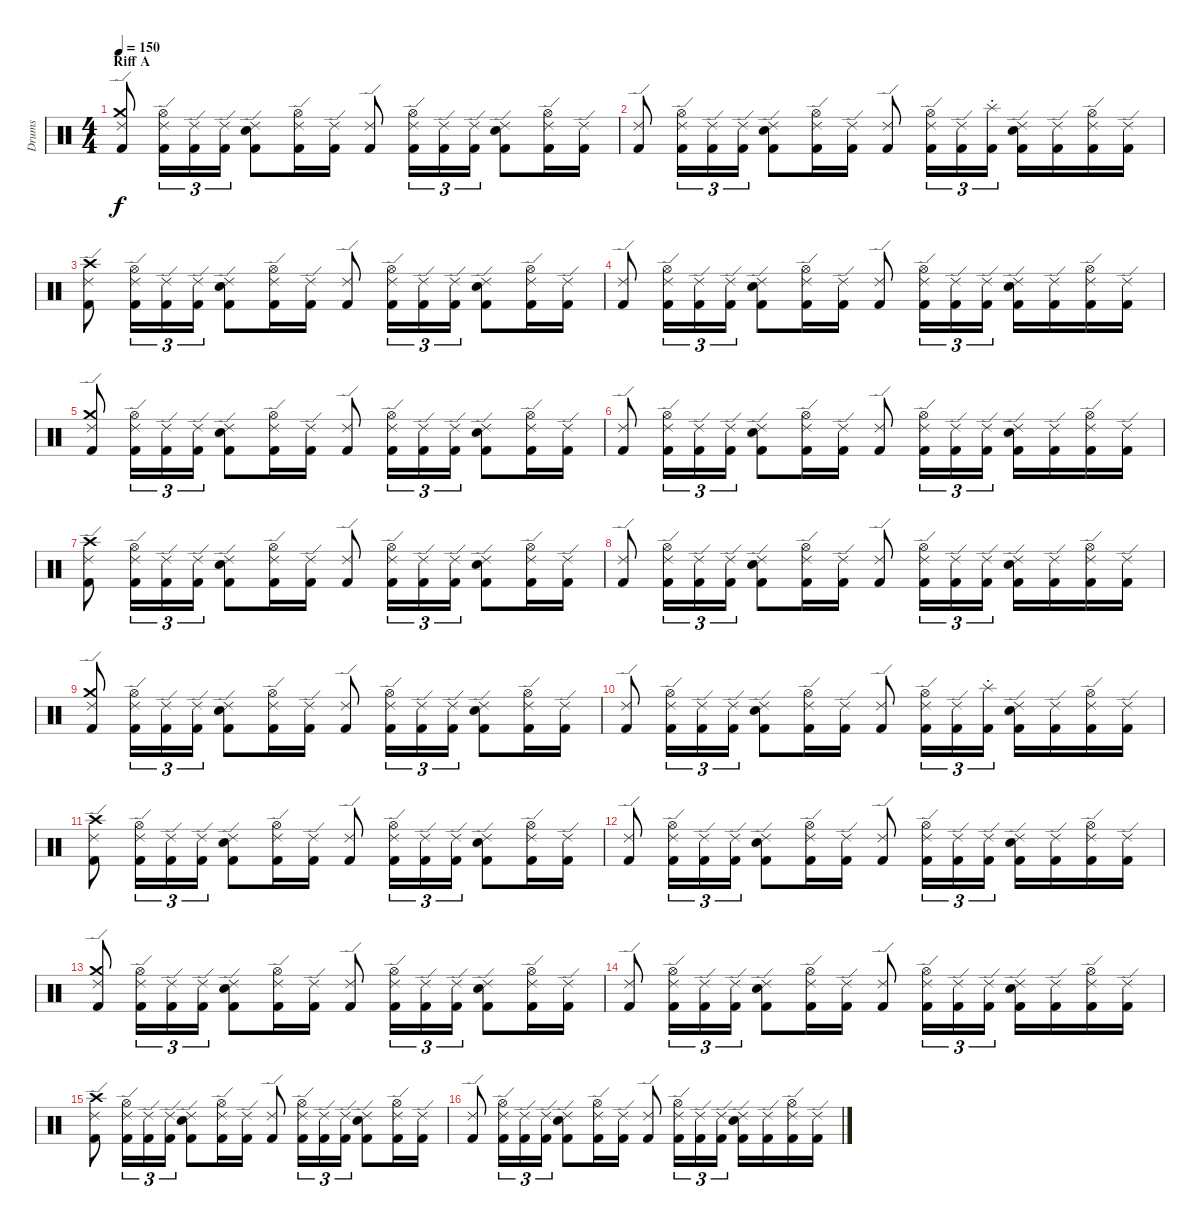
\track ("Drums" "Drums") {instrument percussion}
\staff {score}
\articulation defaults
\ts (4 4)
\section ("" "Riff A")
\tempo 150
\clef neutral
\ks c
("Kick (hit) 2" "Crash medium (hit)" "Ride (edge) 2").8{dy f} ("Kick (hit) 2" "Hi-Hat (open)" "Ride (edge) 2").16{tu (3 2)} ("Kick (hit) 2" "Ride (edge) 2").16{tu (3 2)} ("Kick (hit) 2" "Ride (edge) 2").16{tu (3 2)} ("Kick (hit) 2" "Snare (hit) 2" "Ride (edge) 2").8 ("Kick (hit) 2" "Hi-Hat (open)" "Ride (edge) 2").16 ("Kick (hit) 2" "Ride (edge) 2").16 ("Kick (hit) 2" "Ride (edge) 2").8 ("Kick (hit) 2" "Hi-Hat (open)" "Ride (edge) 2").16{tu (3 2)} ("Kick (hit) 2" "Ride (edge) 2").16{tu (3 2)} ("Kick (hit) 2" "Ride (edge) 2").16{tu (3 2)} ("Kick (hit) 2" "Snare (hit) 2" "Ride (edge) 2").8 ("Kick (hit) 2" "Hi-Hat (open)" "Ride (edge) 2").16 ("Kick (hit) 2" "Ride (edge) 2").16 |
("Kick (hit) 2" "Ride (edge) 2").8 ("Kick (hit) 2" "Hi-Hat (open)" "Ride (edge) 2").16{tu (3 2)} ("Kick (hit) 2" "Ride (edge) 2").16{tu (3 2)} ("Kick (hit) 2" "Ride (edge) 2").16{tu (3 2)} ("Kick (hit) 2" "Snare (hit) 2" "Ride (edge) 2").8 ("Kick (hit) 2" "Hi-Hat (open)" "Ride (edge) 2").16 ("Kick (hit) 2" "Ride (edge) 2").16 ("Kick (hit) 2" "Ride (edge) 2").8 ("Kick (hit) 2" "Hi-Hat (open)" "Ride (edge) 2").16{tu (3 2)} ("Kick (hit) 2" "Ride (edge) 2").16{tu (3 2)} ("Kick (hit) 2" "Splash (choke)").16{tu (3 2)} ("Kick (hit) 2" "Snare (hit) 2" "Ride (edge) 2").16 ("Kick (hit) 2" "Ride (edge) 2").16 ("Kick (hit) 2" "Hi-Hat (open)" "Ride (edge) 2").16 ("Kick (hit) 2" "Ride (edge) 2").16 |
("Kick (hit) 2" "Crash high (hit)" "Ride (edge) 2").8 ("Kick (hit) 2" "Hi-Hat (open)" "Ride (edge) 2").16{tu (3 2)} ("Kick (hit) 2" "Ride (edge) 2").16{tu (3 2)} ("Kick (hit) 2" "Ride (edge) 2").16{tu (3 2)} ("Kick (hit) 2" "Snare (hit) 2" "Ride (edge) 2").8 ("Kick (hit) 2" "Hi-Hat (open)" "Ride (edge) 2").16 ("Kick (hit) 2" "Ride (edge) 2").16 ("Kick (hit) 2" "Ride (edge) 2").8 ("Kick (hit) 2" "Hi-Hat (open)" "Ride (edge) 2").16{tu (3 2)} ("Kick (hit) 2" "Ride (edge) 2").16{tu (3 2)} ("Kick (hit) 2" "Ride (edge) 2").16{tu (3 2)} ("Kick (hit) 2" "Snare (hit) 2" "Ride (edge) 2").8 ("Kick (hit) 2" "Hi-Hat (open)" "Ride (edge) 2").16 ("Kick (hit) 2" "Ride (edge) 2").16 |
("Kick (hit) 2" "Ride (edge) 2").8 ("Kick (hit) 2" "Hi-Hat (open)" "Ride (edge) 2").16{tu (3 2)} ("Kick (hit) 2" "Ride (edge) 2").16{tu (3 2)} ("Kick (hit) 2" "Ride (edge) 2").16{tu (3 2)} ("Kick (hit) 2" "Snare (hit) 2" "Ride (edge) 2").8 ("Kick (hit) 2" "Hi-Hat (open)" "Ride (edge) 2").16 ("Kick (hit) 2" "Ride (edge) 2").16 ("Kick (hit) 2" "Ride (edge) 2").8 ("Kick (hit) 2" "Hi-Hat (open)" "Ride (edge) 2").16{tu (3 2)} ("Kick (hit) 2" "Ride (edge) 2").16{tu (3 2)} ("Kick (hit) 2" "Ride (edge) 2").16{tu (3 2)} ("Kick (hit) 2" "Snare (hit) 2" "Ride (edge) 2").16 ("Kick (hit) 2" "Ride (edge) 2").16 ("Kick (hit) 2" "Hi-Hat (open)" "Ride (edge) 2").16 ("Kick (hit) 2" "Ride (edge) 2").16 |
("Kick (hit) 2" "Crash medium (hit)" "Ride (edge) 2").8 ("Kick (hit) 2" "Hi-Hat (open)" "Ride (edge) 2").16{tu (3 2)} ("Kick (hit) 2" "Ride (edge) 2").16{tu (3 2)} ("Kick (hit) 2" "Ride (edge) 2").16{tu (3 2)} ("Kick (hit) 2" "Snare (hit) 2" "Ride (edge) 2").8 ("Kick (hit) 2" "Hi-Hat (open)" "Ride (edge) 2").16 ("Kick (hit) 2" "Ride (edge) 2").16 ("Kick (hit) 2" "Ride (edge) 2").8 ("Kick (hit) 2" "Hi-Hat (open)" "Ride (edge) 2").16{tu (3 2)} ("Kick (hit) 2" "Ride (edge) 2").16{tu (3 2)} ("Kick (hit) 2" "Ride (edge) 2").16{tu (3 2)} ("Kick (hit) 2" "Snare (hit) 2" "Ride (edge) 2").8 ("Kick (hit) 2" "Hi-Hat (open)" "Ride (edge) 2").16 ("Kick (hit) 2" "Ride (edge) 2").16 |
("Kick (hit) 2" "Ride (edge) 2").8 ("Kick (hit) 2" "Hi-Hat (open)" "Ride (edge) 2").16{tu (3 2)} ("Kick (hit) 2" "Ride (edge) 2").16{tu (3 2)} ("Kick (hit) 2" "Ride (edge) 2").16{tu (3 2)} ("Kick (hit) 2" "Snare (hit) 2" "Ride (edge) 2").8 ("Kick (hit) 2" "Hi-Hat (open)" "Ride (edge) 2").16 ("Kick (hit) 2" "Ride (edge) 2").16 ("Kick (hit) 2" "Ride (edge) 2").8 ("Kick (hit) 2" "Hi-Hat (open)" "Ride (edge) 2").16{tu (3 2)} ("Kick (hit) 2" "Ride (edge) 2").16{tu (3 2)} ("Kick (hit) 2" "Ride (edge) 2").16{tu (3 2)} ("Kick (hit) 2" "Snare (hit) 2" "Ride (edge) 2").16 ("Kick (hit) 2" "Ride (edge) 2").16 ("Kick (hit) 2" "Hi-Hat (open)" "Ride (edge) 2").16 ("Kick (hit) 2" "Ride (edge) 2").16 |
("Kick (hit) 2" "Crash high (hit)" "Ride (edge) 2").8 ("Kick (hit) 2" "Hi-Hat (open)" "Ride (edge) 2").16{tu (3 2)} ("Kick (hit) 2" "Ride (edge) 2").16{tu (3 2)} ("Kick (hit) 2" "Ride (edge) 2").16{tu (3 2)} ("Kick (hit) 2" "Snare (hit) 2" "Ride (edge) 2").8 ("Kick (hit) 2" "Hi-Hat (open)" "Ride (edge) 2").16 ("Kick (hit) 2" "Ride (edge) 2").16 ("Kick (hit) 2" "Ride (edge) 2").8 ("Kick (hit) 2" "Hi-Hat (open)" "Ride (edge) 2").16{tu (3 2)} ("Kick (hit) 2" "Ride (edge) 2").16{tu (3 2)} ("Kick (hit) 2" "Ride (edge) 2").16{tu (3 2)} ("Kick (hit) 2" "Snare (hit) 2" "Ride (edge) 2").8 ("Kick (hit) 2" "Hi-Hat (open)" "Ride (edge) 2").16 ("Kick (hit) 2" "Ride (edge) 2").16 |
("Kick (hit) 2" "Ride (edge) 2").8 ("Kick (hit) 2" "Hi-Hat (open)" "Ride (edge) 2").16{tu (3 2)} ("Kick (hit) 2" "Ride (edge) 2").16{tu (3 2)} ("Kick (hit) 2" "Ride (edge) 2").16{tu (3 2)} ("Kick (hit) 2" "Snare (hit) 2" "Ride (edge) 2").8 ("Kick (hit) 2" "Hi-Hat (open)" "Ride (edge) 2").16 ("Kick (hit) 2" "Ride (edge) 2").16 ("Kick (hit) 2" "Ride (edge) 2").8 ("Kick (hit) 2" "Hi-Hat (open)" "Ride (edge) 2").16{tu (3 2)} ("Kick (hit) 2" "Ride (edge) 2").16{tu (3 2)} ("Kick (hit) 2" "Ride (edge) 2").16{tu (3 2)} ("Kick (hit) 2" "Snare (hit) 2" "Ride (edge) 2").16 ("Kick (hit) 2" "Ride (edge) 2").16 ("Kick (hit) 2" "Hi-Hat (open)" "Ride (edge) 2").16 ("Kick (hit) 2" "Ride (edge) 2").16 |
("Kick (hit) 2" "Crash medium (hit)" "Ride (edge) 2").8 ("Kick (hit) 2" "Hi-Hat (open)" "Ride (edge) 2").16{tu (3 2)} ("Kick (hit) 2" "Ride (edge) 2").16{tu (3 2)} ("Kick (hit) 2" "Ride (edge) 2").16{tu (3 2)} ("Kick (hit) 2" "Snare (hit) 2" "Ride (edge) 2").8 ("Kick (hit) 2" "Hi-Hat (open)" "Ride (edge) 2").16 ("Kick (hit) 2" "Ride (edge) 2").16 ("Kick (hit) 2" "Ride (edge) 2").8 ("Kick (hit) 2" "Hi-Hat (open)" "Ride (edge) 2").16{tu (3 2)} ("Kick (hit) 2" "Ride (edge) 2").16{tu (3 2)} ("Kick (hit) 2" "Ride (edge) 2").16{tu (3 2)} ("Kick (hit) 2" "Snare (hit) 2" "Ride (edge) 2").8 ("Kick (hit) 2" "Hi-Hat (open)" "Ride (edge) 2").16 ("Kick (hit) 2" "Ride (edge) 2").16 |
("Kick (hit) 2" "Ride (edge) 2").8 ("Kick (hit) 2" "Hi-Hat (open)" "Ride (edge) 2").16{tu (3 2)} ("Kick (hit) 2" "Ride (edge) 2").16{tu (3 2)} ("Kick (hit) 2" "Ride (edge) 2").16{tu (3 2)} ("Kick (hit) 2" "Snare (hit) 2" "Ride (edge) 2").8 ("Kick (hit) 2" "Hi-Hat (open)" "Ride (edge) 2").16 ("Kick (hit) 2" "Ride (edge) 2").16 ("Kick (hit) 2" "Ride (edge) 2").8 ("Kick (hit) 2" "Hi-Hat (open)" "Ride (edge) 2").16{tu (3 2)} ("Kick (hit) 2" "Ride (edge) 2").16{tu (3 2)} ("Kick (hit) 2" "Splash (choke)").16{tu (3 2)} ("Kick (hit) 2" "Snare (hit) 2" "Ride (edge) 2").16 ("Kick (hit) 2" "Ride (edge) 2").16 ("Kick (hit) 2" "Hi-Hat (open)" "Ride (edge) 2").16 ("Kick (hit) 2" "Ride (edge) 2").16 |
("Kick (hit) 2" "Crash high (hit)" "Ride (edge) 2").8 ("Kick (hit) 2" "Hi-Hat (open)" "Ride (edge) 2").16{tu (3 2)} ("Kick (hit) 2" "Ride (edge) 2").16{tu (3 2)} ("Kick (hit) 2" "Ride (edge) 2").16{tu (3 2)} ("Kick (hit) 2" "Snare (hit) 2" "Ride (edge) 2").8 ("Kick (hit) 2" "Hi-Hat (open)" "Ride (edge) 2").16 ("Kick (hit) 2" "Ride (edge) 2").16 ("Kick (hit) 2" "Ride (edge) 2").8 ("Kick (hit) 2" "Hi-Hat (open)" "Ride (edge) 2").16{tu (3 2)} ("Kick (hit) 2" "Ride (edge) 2").16{tu (3 2)} ("Kick (hit) 2" "Ride (edge) 2").16{tu (3 2)} ("Kick (hit) 2" "Snare (hit) 2" "Ride (edge) 2").8 ("Kick (hit) 2" "Hi-Hat (open)" "Ride (edge) 2").16 ("Kick (hit) 2" "Ride (edge) 2").16 |
("Kick (hit) 2" "Ride (edge) 2").8 ("Kick (hit) 2" "Hi-Hat (open)" "Ride (edge) 2").16{tu (3 2)} ("Kick (hit) 2" "Ride (edge) 2").16{tu (3 2)} ("Kick (hit) 2" "Ride (edge) 2").16{tu (3 2)} ("Kick (hit) 2" "Snare (hit) 2" "Ride (edge) 2").8 ("Kick (hit) 2" "Hi-Hat (open)" "Ride (edge) 2").16 ("Kick (hit) 2" "Ride (edge) 2").16 ("Kick (hit) 2" "Ride (edge) 2").8 ("Kick (hit) 2" "Hi-Hat (open)" "Ride (edge) 2").16{tu (3 2)} ("Kick (hit) 2" "Ride (edge) 2").16{tu (3 2)} ("Kick (hit) 2" "Ride (edge) 2").16{tu (3 2)} ("Kick (hit) 2" "Snare (hit) 2" "Ride (edge) 2").16 ("Kick (hit) 2" "Ride (edge) 2").16 ("Kick (hit) 2" "Hi-Hat (open)" "Ride (edge) 2").16 ("Kick (hit) 2" "Ride (edge) 2").16 |
("Kick (hit) 2" "Crash medium (hit)" "Ride (edge) 2").8 ("Kick (hit) 2" "Hi-Hat (open)" "Ride (edge) 2").16{tu (3 2)} ("Kick (hit) 2" "Ride (edge) 2").16{tu (3 2)} ("Kick (hit) 2" "Ride (edge) 2").16{tu (3 2)} ("Kick (hit) 2" "Snare (hit) 2" "Ride (edge) 2").8 ("Kick (hit) 2" "Hi-Hat (open)" "Ride (edge) 2").16 ("Kick (hit) 2" "Ride (edge) 2").16 ("Kick (hit) 2" "Ride (edge) 2").8 ("Kick (hit) 2" "Hi-Hat (open)" "Ride (edge) 2").16{tu (3 2)} ("Kick (hit) 2" "Ride (edge) 2").16{tu (3 2)} ("Kick (hit) 2" "Ride (edge) 2").16{tu (3 2)} ("Kick (hit) 2" "Snare (hit) 2" "Ride (edge) 2").8 ("Kick (hit) 2" "Hi-Hat (open)" "Ride (edge) 2").16 ("Kick (hit) 2" "Ride (edge) 2").16 |
("Kick (hit) 2" "Ride (edge) 2").8 ("Kick (hit) 2" "Hi-Hat (open)" "Ride (edge) 2").16{tu (3 2)} ("Kick (hit) 2" "Ride (edge) 2").16{tu (3 2)} ("Kick (hit) 2" "Ride (edge) 2").16{tu (3 2)} ("Kick (hit) 2" "Snare (hit) 2" "Ride (edge) 2").8 ("Kick (hit) 2" "Hi-Hat (open)" "Ride (edge) 2").16 ("Kick (hit) 2" "Ride (edge) 2").16 ("Kick (hit) 2" "Ride (edge) 2").8 ("Kick (hit) 2" "Hi-Hat (open)" "Ride (edge) 2").16{tu (3 2)} ("Kick (hit) 2" "Ride (edge) 2").16{tu (3 2)} ("Kick (hit) 2" "Ride (edge) 2").16{tu (3 2)} ("Kick (hit) 2" "Snare (hit) 2" "Ride (edge) 2").16 ("Kick (hit) 2" "Ride (edge) 2").16 ("Kick (hit) 2" "Hi-Hat (open)" "Ride (edge) 2").16 ("Kick (hit) 2" "Ride (edge) 2").16 |
("Kick (hit) 2" "Crash high (hit)" "Ride (edge) 2").8 ("Kick (hit) 2" "Hi-Hat (open)" "Ride (edge) 2").16{tu (3 2)} ("Kick (hit) 2" "Ride (edge) 2").16{tu (3 2)} ("Kick (hit) 2" "Ride (edge) 2").16{tu (3 2)} ("Kick (hit) 2" "Snare (hit) 2" "Ride (edge) 2").8 ("Kick (hit) 2" "Hi-Hat (open)" "Ride (edge) 2").16 ("Kick (hit) 2" "Ride (edge) 2").16 ("Kick (hit) 2" "Ride (edge) 2").8 ("Kick (hit) 2" "Hi-Hat (open)" "Ride (edge) 2").16{tu (3 2)} ("Kick (hit) 2" "Ride (edge) 2").16{tu (3 2)} ("Kick (hit) 2" "Ride (edge) 2").16{tu (3 2)} ("Kick (hit) 2" "Snare (hit) 2" "Ride (edge) 2").8 ("Kick (hit) 2" "Hi-Hat (open)" "Ride (edge) 2").16 ("Kick (hit) 2" "Ride (edge) 2").16 |
("Kick (hit) 2" "Ride (edge) 2").8 ("Kick (hit) 2" "Hi-Hat (open)" "Ride (edge) 2").16{tu (3 2)} ("Kick (hit) 2" "Ride (edge) 2").16{tu (3 2)} ("Kick (hit) 2" "Ride (edge) 2").16{tu (3 2)} ("Kick (hit) 2" "Snare (hit) 2" "Ride (edge) 2").8 ("Kick (hit) 2" "Hi-Hat (open)" "Ride (edge) 2").16 ("Kick (hit) 2" "Ride (edge) 2").16 ("Kick (hit) 2" "Ride (edge) 2").8 ("Kick (hit) 2" "Hi-Hat (open)" "Ride (edge) 2").16{tu (3 2)} ("Kick (hit) 2" "Ride (edge) 2").16{tu (3 2)} ("Kick (hit) 2" "Ride (edge) 2").16{tu (3 2)} ("Kick (hit) 2" "Snare (hit) 2" "Ride (edge) 2").16 ("Kick (hit) 2" "Ride (edge) 2").16 ("Kick (hit) 2" "Hi-Hat (open)" "Ride (edge) 2").16 ("Kick (hit) 2" "Ride (edge) 2").16
